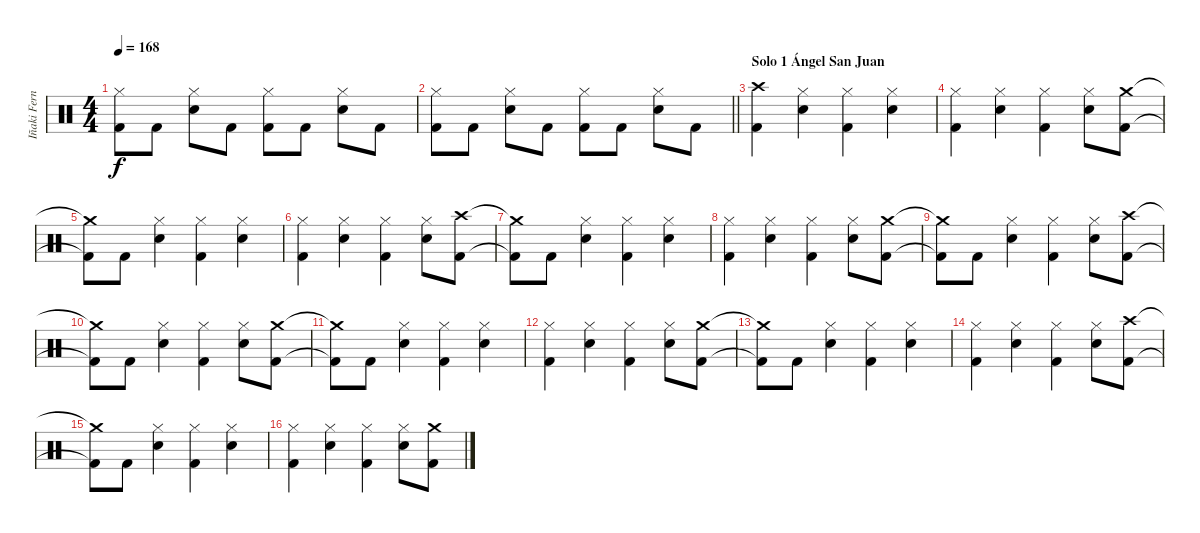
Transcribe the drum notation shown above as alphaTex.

\track ("Iñaki Fernández" "Iñaki Fern") {instrument percussion}
\staff {score}
\articulation defaults
\ts (4 4)
\tempo 168
\clef neutral
\ks c
("Hi-Hat (closed)" "Kick (hit) 2").8{dy f} "Kick (hit) 2".8 ("Hi-Hat (closed)" "Snare (hit) 2").8 "Kick (hit) 2".8 ("Hi-Hat (closed)" "Kick (hit) 2").8 "Kick (hit) 2".8 ("Hi-Hat (closed)" "Snare (hit) 2").8 "Kick (hit) 2".8 |
\barLineRight lightlight
("Hi-Hat (closed)" "Kick (hit) 2").8 "Kick (hit) 2".8 ("Hi-Hat (closed)" "Snare (hit) 2").8 "Kick (hit) 2".8 ("Hi-Hat (closed)" "Kick (hit) 2").8 "Kick (hit) 2".8 ("Hi-Hat (closed)" "Snare (hit) 2").8 "Kick (hit) 2".8 |
\section ("" "Solo 1 Ángel San Juan")
("Crash high (hit)" "Kick (hit) 2").4 ("Hi-Hat (closed)" "Snare (hit) 2").4 ("Hi-Hat (closed)" "Kick (hit) 2").4 ("Hi-Hat (closed)" "Snare (hit) 2").4 |
("Hi-Hat (closed)" "Kick (hit) 2").4 ("Hi-Hat (closed)" "Snare (hit) 2").4 ("Hi-Hat (closed)" "Kick (hit) 2").4 ("Hi-Hat (closed)" "Snare (hit) 2").8 ("Crash medium (hit)" "Kick (hit) 2").8 |
("Crash medium (hit)"{t} "Kick (hit) 2"{t}).8 "Kick (hit) 2".8 ("Hi-Hat (closed)" "Snare (hit) 2").4 ("Hi-Hat (closed)" "Kick (hit) 2").4 ("Hi-Hat (closed)" "Snare (hit) 2").4 |
("Hi-Hat (closed)" "Kick (hit) 2").4 ("Hi-Hat (closed)" "Snare (hit) 2").4 ("Hi-Hat (closed)" "Kick (hit) 2").4 ("Hi-Hat (closed)" "Snare (hit) 2").8 ("Crash high (hit)" "Kick (hit) 2").8 |
("Crash medium (hit)"{t} "Kick (hit) 2"{t}).8 "Kick (hit) 2".8 ("Hi-Hat (closed)" "Snare (hit) 2").4 ("Hi-Hat (closed)" "Kick (hit) 2").4 ("Hi-Hat (closed)" "Snare (hit) 2").4 |
("Hi-Hat (closed)" "Kick (hit) 2").4 ("Hi-Hat (closed)" "Snare (hit) 2").4 ("Hi-Hat (closed)" "Kick (hit) 2").4 ("Hi-Hat (closed)" "Snare (hit) 2").8 ("Crash medium (hit)" "Kick (hit) 2").8 |
("Crash medium (hit)"{t} "Kick (hit) 2"{t}).8 "Kick (hit) 2".8 ("Hi-Hat (closed)" "Snare (hit) 2").4 ("Hi-Hat (closed)" "Kick (hit) 2").4 ("Hi-Hat (closed)" "Snare (hit) 2").8 ("Crash high (hit)" "Kick (hit) 2").8 |
("Crash medium (hit)"{t} "Kick (hit) 2"{t}).8 "Kick (hit) 2".8 ("Hi-Hat (closed)" "Snare (hit) 2").4 ("Hi-Hat (closed)" "Kick (hit) 2").4 ("Hi-Hat (closed)" "Snare (hit) 2").8 ("Crash medium (hit)" "Kick (hit) 2").8 |
("Crash medium (hit)"{t} "Kick (hit) 2"{t}).8 "Kick (hit) 2".8 ("Hi-Hat (closed)" "Snare (hit) 2").4 ("Hi-Hat (closed)" "Kick (hit) 2").4 ("Hi-Hat (closed)" "Snare (hit) 2").4 |
("Hi-Hat (closed)" "Kick (hit) 2").4 ("Hi-Hat (closed)" "Snare (hit) 2").4 ("Hi-Hat (closed)" "Kick (hit) 2").4 ("Hi-Hat (closed)" "Snare (hit) 2").8 ("Crash medium (hit)" "Kick (hit) 2").8 |
("Crash medium (hit)"{t} "Kick (hit) 2"{t}).8 "Kick (hit) 2".8 ("Hi-Hat (closed)" "Snare (hit) 2").4 ("Hi-Hat (closed)" "Kick (hit) 2").4 ("Hi-Hat (closed)" "Snare (hit) 2").4 |
("Hi-Hat (closed)" "Kick (hit) 2").4 ("Hi-Hat (closed)" "Snare (hit) 2").4 ("Hi-Hat (closed)" "Kick (hit) 2").4 ("Hi-Hat (closed)" "Snare (hit) 2").8 ("Crash high (hit)" "Kick (hit) 2").8 |
("Crash medium (hit)"{t} "Kick (hit) 2"{t}).8 "Kick (hit) 2".8 ("Hi-Hat (closed)" "Snare (hit) 2").4 ("Hi-Hat (closed)" "Kick (hit) 2").4 ("Hi-Hat (closed)" "Snare (hit) 2").4 |
("Hi-Hat (closed)" "Kick (hit) 2").4 ("Hi-Hat (closed)" "Snare (hit) 2").4 ("Hi-Hat (closed)" "Kick (hit) 2").4 ("Hi-Hat (closed)" "Snare (hit) 2").8 ("Crash medium (hit)" "Kick (hit) 2").8
